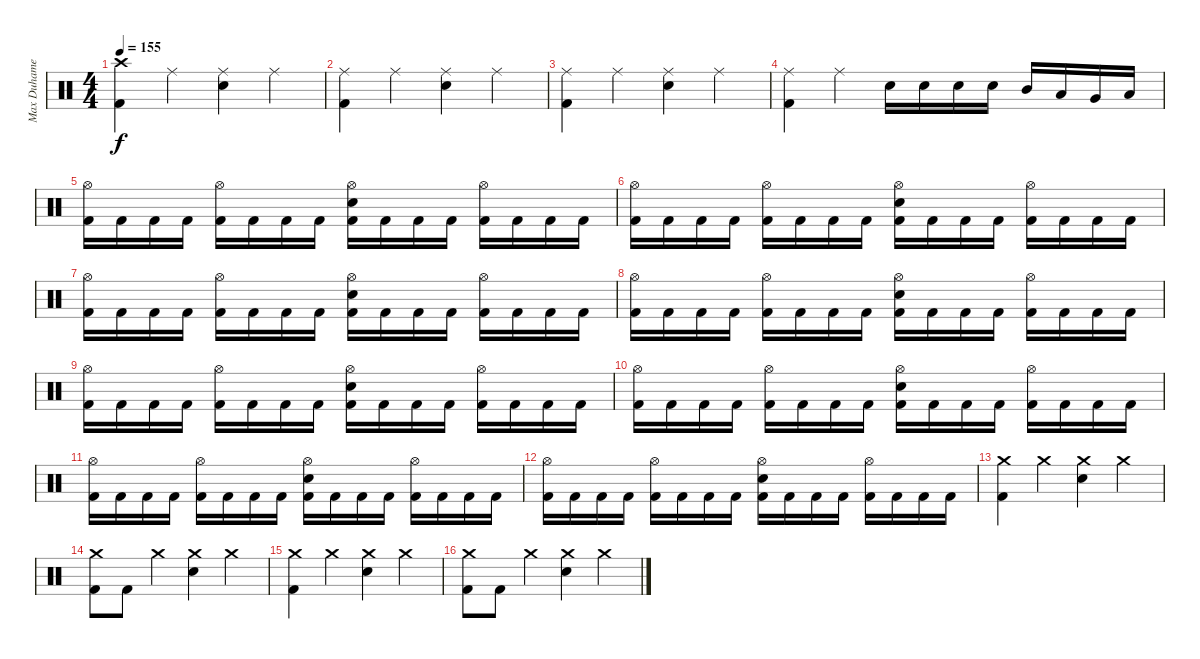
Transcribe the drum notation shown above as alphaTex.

\track ("Max Duhamel (Drums)" "Max Duhame") {instrument percussion}
\staff {score}
\articulation defaults
\ts (4 4)
\tempo 155
\clef neutral
\ks c
("Crash high (hit)" "Kick (hit) 2").4{dy f} "Ride (middle)".4 ("Ride (middle)" "Electric Snare (hit)").4 "Ride (middle)".4 |
("Ride (middle)" "Kick (hit) 2").4 "Ride (middle)".4 ("Ride (middle)" "Electric Snare (hit)").4 "Ride (middle)".4 |
("Ride (middle)" "Kick (hit) 2").4 "Ride (middle)".4 ("Ride (middle)" "Electric Snare (hit)").4 "Ride (middle)".4 |
("Ride (middle)" "Kick (hit) 2").4 "Ride (middle)".4 "Electric Snare (hit)".16 "Electric Snare (hit)".16 "Electric Snare (hit)".16 "Electric Snare (hit)".16 "Mid Tom (hit)".16 "Low Tom (hit)".16 "Very Low Tom (hit)".16 "Low Floor Tom (hit)".16 |
("Hi-Hat (open)" "Kick (hit) 2").16 "Kick (hit) 2".16 "Kick (hit) 2".16 "Kick (hit) 2".16 ("Hi-Hat (open)" "Kick (hit) 2").16 "Kick (hit) 2".16 "Kick (hit) 2".16 "Kick (hit) 2".16 ("Hi-Hat (open)" "Electric Snare (hit)" "Kick (hit) 2").16 "Kick (hit) 2".16 "Kick (hit) 2".16 "Kick (hit) 2".16 ("Hi-Hat (open)" "Kick (hit) 2").16 "Kick (hit) 2".16 "Kick (hit) 2".16 "Kick (hit) 2".16 |
("Hi-Hat (open)" "Kick (hit) 2").16 "Kick (hit) 2".16 "Kick (hit) 2".16 "Kick (hit) 2".16 ("Hi-Hat (open)" "Kick (hit) 2").16 "Kick (hit) 2".16 "Kick (hit) 2".16 "Kick (hit) 2".16 ("Hi-Hat (open)" "Electric Snare (hit)" "Kick (hit) 2").16 "Kick (hit) 2".16 "Kick (hit) 2".16 "Kick (hit) 2".16 ("Hi-Hat (open)" "Kick (hit) 2").16 "Kick (hit) 2".16 "Kick (hit) 2".16 "Kick (hit) 2".16 |
("Hi-Hat (open)" "Kick (hit) 2").16 "Kick (hit) 2".16 "Kick (hit) 2".16 "Kick (hit) 2".16 ("Hi-Hat (open)" "Kick (hit) 2").16 "Kick (hit) 2".16 "Kick (hit) 2".16 "Kick (hit) 2".16 ("Hi-Hat (open)" "Electric Snare (hit)" "Kick (hit) 2").16 "Kick (hit) 2".16 "Kick (hit) 2".16 "Kick (hit) 2".16 ("Hi-Hat (open)" "Kick (hit) 2").16 "Kick (hit) 2".16 "Kick (hit) 2".16 "Kick (hit) 2".16 |
("Hi-Hat (open)" "Kick (hit) 2").16 "Kick (hit) 2".16 "Kick (hit) 2".16 "Kick (hit) 2".16 ("Hi-Hat (open)" "Kick (hit) 2").16 "Kick (hit) 2".16 "Kick (hit) 2".16 "Kick (hit) 2".16 ("Hi-Hat (open)" "Electric Snare (hit)" "Kick (hit) 2").16 "Kick (hit) 2".16 "Kick (hit) 2".16 "Kick (hit) 2".16 ("Hi-Hat (open)" "Kick (hit) 2").16 "Kick (hit) 2".16 "Kick (hit) 2".16 "Kick (hit) 2".16 |
("Hi-Hat (open)" "Kick (hit) 2").16 "Kick (hit) 2".16 "Kick (hit) 2".16 "Kick (hit) 2".16 ("Hi-Hat (open)" "Kick (hit) 2").16 "Kick (hit) 2".16 "Kick (hit) 2".16 "Kick (hit) 2".16 ("Hi-Hat (open)" "Electric Snare (hit)" "Kick (hit) 2").16 "Kick (hit) 2".16 "Kick (hit) 2".16 "Kick (hit) 2".16 ("Hi-Hat (open)" "Kick (hit) 2").16 "Kick (hit) 2".16 "Kick (hit) 2".16 "Kick (hit) 2".16 |
("Hi-Hat (open)" "Kick (hit) 2").16 "Kick (hit) 2".16 "Kick (hit) 2".16 "Kick (hit) 2".16 ("Hi-Hat (open)" "Kick (hit) 2").16 "Kick (hit) 2".16 "Kick (hit) 2".16 "Kick (hit) 2".16 ("Hi-Hat (open)" "Electric Snare (hit)" "Kick (hit) 2").16 "Kick (hit) 2".16 "Kick (hit) 2".16 "Kick (hit) 2".16 ("Hi-Hat (open)" "Kick (hit) 2").16 "Kick (hit) 2".16 "Kick (hit) 2".16 "Kick (hit) 2".16 |
("Hi-Hat (open)" "Kick (hit) 2").16 "Kick (hit) 2".16 "Kick (hit) 2".16 "Kick (hit) 2".16 ("Hi-Hat (open)" "Kick (hit) 2").16 "Kick (hit) 2".16 "Kick (hit) 2".16 "Kick (hit) 2".16 ("Hi-Hat (open)" "Electric Snare (hit)" "Kick (hit) 2").16 "Kick (hit) 2".16 "Kick (hit) 2".16 "Kick (hit) 2".16 ("Hi-Hat (open)" "Kick (hit) 2").16 "Kick (hit) 2".16 "Kick (hit) 2".16 "Kick (hit) 2".16 |
("Hi-Hat (open)" "Kick (hit) 2").16 "Kick (hit) 2".16 "Kick (hit) 2".16 "Kick (hit) 2".16 ("Hi-Hat (open)" "Kick (hit) 2").16 "Kick (hit) 2".16 "Kick (hit) 2".16 "Kick (hit) 2".16 ("Hi-Hat (open)" "Electric Snare (hit)" "Kick (hit) 2").16 "Kick (hit) 2".16 "Kick (hit) 2".16 "Kick (hit) 2".16 ("Hi-Hat (open)" "Kick (hit) 2").16 "Kick (hit) 2".16 "Kick (hit) 2".16 "Kick (hit) 2".16 |
("Crash medium (hit)" "Kick (hit) 2").4 "Crash medium (hit)".4 ("Crash medium (hit)" "Electric Snare (hit)").4 "Crash medium (hit)".4 |
("Crash medium (hit)" "Kick (hit) 2").8 "Kick (hit) 2".8 "Crash medium (hit)".4 ("Crash medium (hit)" "Electric Snare (hit)").4 "Crash medium (hit)".4 |
("Crash medium (hit)" "Kick (hit) 2").4 "Crash medium (hit)".4 ("Crash medium (hit)" "Electric Snare (hit)").4 "Crash medium (hit)".4 |
("Crash medium (hit)" "Kick (hit) 2").8 "Kick (hit) 2".8 "Crash medium (hit)".4 ("Crash medium (hit)" "Electric Snare (hit)").4 "Crash medium (hit)".4
